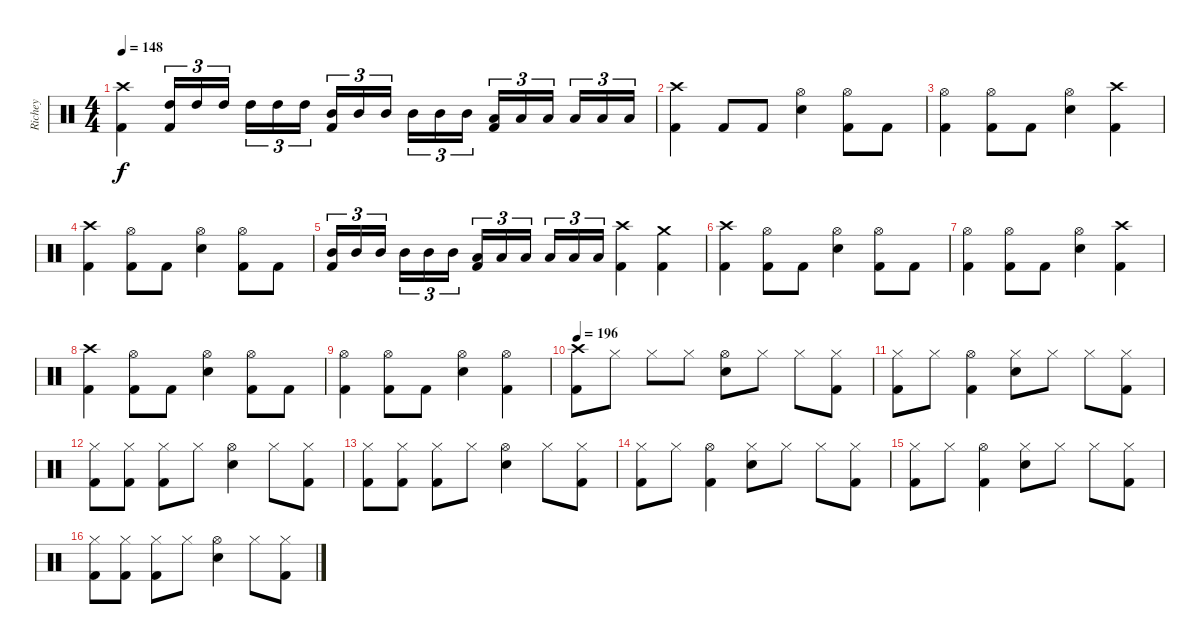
\track ("Richey" "Richey") {instrument percussion}
\staff {score}
\articulation defaults
\ts (4 4)
\tempo 148
\clef neutral
\ks c
("Crash high (hit)" "Kick (hit) 2").4{dy f} ("High Tom (hit)" "Kick (hit) 2").16{tu (3 2)} "High Tom (hit)".16{tu (3 2)} "High Tom (hit)".16{tu (3 2)} "High Tom (hit)".16{tu (3 2)} "High Tom (hit)".16{tu (3 2)} "High Tom (hit)".16{tu (3 2)} ("Mid Tom (hit)" "Kick (hit) 2").16{tu (3 2)} "Mid Tom (hit)".16{tu (3 2)} "Mid Tom (hit)".16{tu (3 2)} "Mid Tom (hit)".16{tu (3 2)} "Mid Tom (hit)".16{tu (3 2)} "Mid Tom (hit)".16{tu (3 2)} ("Low Tom (hit)" "Kick (hit) 2").16{tu (3 2)} "Low Tom (hit)".16{tu (3 2)} "Low Tom (hit)".16{tu (3 2)} "Low Tom (hit)".16{tu (3 2)} "Low Tom (hit)".16{tu (3 2)} "Low Tom (hit)".16{tu (3 2)} |
("Crash high (hit)" "Kick (hit) 2").4 "Kick (hit) 2".8 "Kick (hit) 2".8 ("Hi-Hat (open)" "Snare (hit) 2").4 ("Hi-Hat (open)" "Kick (hit) 2").8 "Kick (hit) 2".8 |
("Hi-Hat (open)" "Kick (hit) 2").4 ("Hi-Hat (open)" "Kick (hit) 2").8 "Kick (hit) 2".8 ("Hi-Hat (open)" "Snare (hit) 2").4 ("Crash high (hit)" "Kick (hit) 2").4 |
("Crash high (hit)" "Kick (hit) 2").4 ("Hi-Hat (open)" "Kick (hit) 2").8 "Kick (hit) 2".8 ("Hi-Hat (open)" "Snare (hit) 2").4 ("Hi-Hat (open)" "Kick (hit) 2").8 "Kick (hit) 2".8 |
("Mid Tom (hit)" "Kick (hit) 2").16{tu (3 2)} "Mid Tom (hit)".16{tu (3 2)} "Mid Tom (hit)".16{tu (3 2)} "Mid Tom (hit)".16{tu (3 2)} "Mid Tom (hit)".16{tu (3 2)} "Mid Tom (hit)".16{tu (3 2)} ("Low Tom (hit)" "Kick (hit) 2").16{tu (3 2)} "Low Tom (hit)".16{tu (3 2)} "Low Tom (hit)".16{tu (3 2)} "Low Tom (hit)".16{tu (3 2)} "Low Tom (hit)".16{tu (3 2)} "Low Tom (hit)".16{tu (3 2)} ("Crash high (hit)" "Kick (hit) 2").4 ("Crash medium (hit)" "Kick (hit) 2").4 |
("Crash high (hit)" "Kick (hit) 2").4 ("Hi-Hat (open)" "Kick (hit) 2").8 "Kick (hit) 2".8 ("Hi-Hat (open)" "Snare (hit) 2").4 ("Hi-Hat (open)" "Kick (hit) 2").8 "Kick (hit) 2".8 |
("Hi-Hat (open)" "Kick (hit) 2").4 ("Hi-Hat (open)" "Kick (hit) 2").8 "Kick (hit) 2".8 ("Hi-Hat (open)" "Snare (hit) 2").4 ("Crash high (hit)" "Kick (hit) 2").4 |
("Crash high (hit)" "Kick (hit) 2").4 ("Hi-Hat (open)" "Kick (hit) 2").8 "Kick (hit) 2".8 ("Hi-Hat (open)" "Snare (hit) 2").4 ("Hi-Hat (open)" "Kick (hit) 2").8 "Kick (hit) 2".8 |
("Hi-Hat (open)" "Kick (hit) 2").4 ("Hi-Hat (open)" "Kick (hit) 2").8 "Kick (hit) 2".8 ("Hi-Hat (open)" "Snare (hit) 2").4 ("Hi-Hat (open)" "Kick (hit) 2").4 |
\tempo 196
("Crash high (hit)" "Kick (hit) 2").8 "Hi-Hat (closed)".8 "Hi-Hat (closed)".8 "Hi-Hat (closed)".8 ("Hi-Hat (open)" "Snare (hit) 2").8 "Hi-Hat (closed)".8 "Hi-Hat (closed)".8 ("Hi-Hat (closed)" "Kick (hit) 2").8 |
("Hi-Hat (closed)" "Kick (hit) 2").8 "Hi-Hat (closed)".8 ("Hi-Hat (open)" "Kick (hit) 2").4 ("Hi-Hat (closed)" "Snare (hit) 2").8 "Hi-Hat (closed)".8 "Hi-Hat (closed)".8 ("Hi-Hat (closed)" "Kick (hit) 2").8 |
("Hi-Hat (closed)" "Kick (hit) 2").8 ("Hi-Hat (closed)" "Kick (hit) 2").8 ("Hi-Hat (closed)" "Kick (hit) 2").8 "Hi-Hat (closed)".8 ("Hi-Hat (open)" "Snare (hit) 2").4 "Hi-Hat (closed)".8 ("Hi-Hat (closed)" "Kick (hit) 2").8 |
("Hi-Hat (closed)" "Kick (hit) 2").8 ("Hi-Hat (closed)" "Kick (hit) 2").8 ("Hi-Hat (closed)" "Kick (hit) 2").8 "Hi-Hat (closed)".8 ("Hi-Hat (open)" "Snare (hit) 2").4 "Hi-Hat (closed)".8 ("Hi-Hat (closed)" "Kick (hit) 2").8 |
("Hi-Hat (closed)" "Kick (hit) 2").8 "Hi-Hat (closed)".8 ("Hi-Hat (open)" "Kick (hit) 2").4 ("Hi-Hat (closed)" "Snare (hit) 2").8 "Hi-Hat (closed)".8 "Hi-Hat (closed)".8 ("Hi-Hat (closed)" "Kick (hit) 2").8 |
("Hi-Hat (closed)" "Kick (hit) 2").8 "Hi-Hat (closed)".8 ("Hi-Hat (open)" "Kick (hit) 2").4 ("Hi-Hat (closed)" "Snare (hit) 2").8 "Hi-Hat (closed)".8 "Hi-Hat (closed)".8 ("Hi-Hat (closed)" "Kick (hit) 2").8 |
("Hi-Hat (closed)" "Kick (hit) 2").8 ("Hi-Hat (closed)" "Kick (hit) 2").8 ("Hi-Hat (closed)" "Kick (hit) 2").8 "Hi-Hat (closed)".8 ("Hi-Hat (open)" "Snare (hit) 2").4 "Hi-Hat (closed)".8 ("Hi-Hat (closed)" "Kick (hit) 2").8
